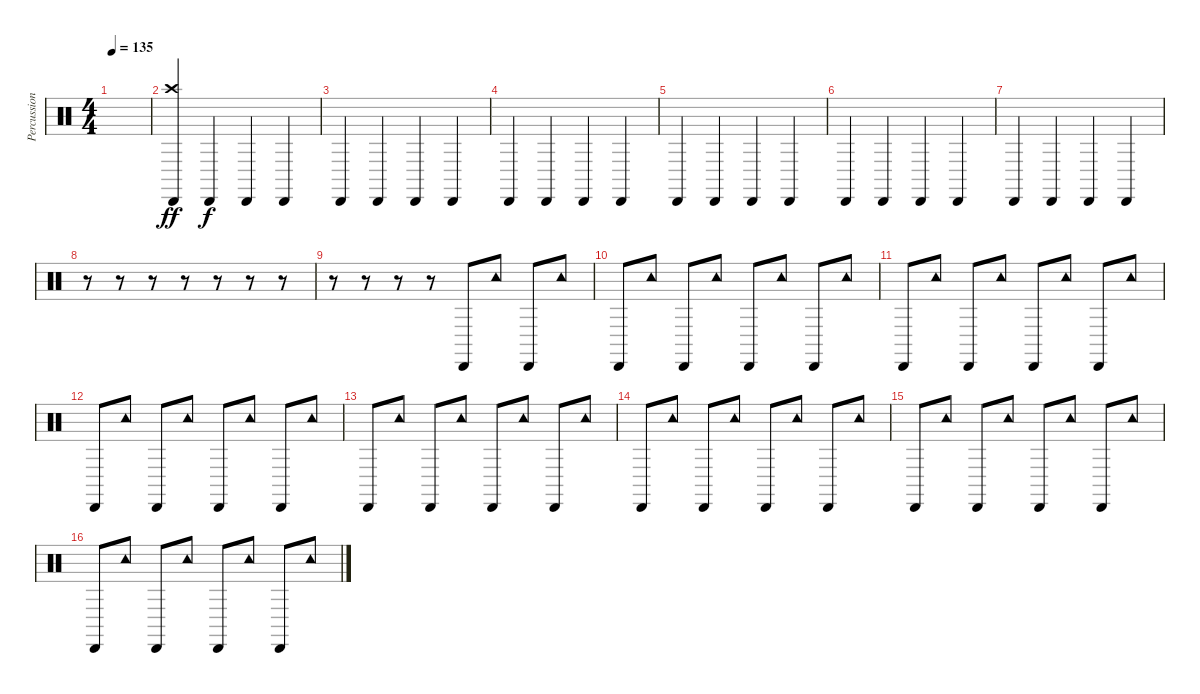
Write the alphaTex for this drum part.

\track ("Percussion2" "Percussion") {instrument percussion}
\staff {score}
\articulation defaults
\ts (4 4)
\tempo 135
\clef neutral
\ks c
|
("Crash high (hit)" "Cabasa (hit)").4{dy ff} "Cabasa (hit)".4{dy f} "Cabasa (hit)".4 "Cabasa (hit)".4 |
"Cabasa (hit)".4 "Cabasa (hit)".4 "Cabasa (hit)".4 "Cabasa (hit)".4 |
"Cabasa (hit)".4 "Cabasa (hit)".4 "Cabasa (hit)".4 "Cabasa (hit)".4 |
"Cabasa (hit)".4 "Cabasa (hit)".4 "Cabasa (hit)".4 "Cabasa (hit)".4 |
"Cabasa (hit)".4 "Cabasa (hit)".4 "Cabasa (hit)".4 "Cabasa (hit)".4 |
"Cabasa (hit)".4 "Cabasa (hit)".4 "Cabasa (hit)".4 "Cabasa (hit)".4 |
r.8 r.8 r.8 r.8 r.8 r.8 r.8 |
r.8 r.8 r.8 r.8 "Cabasa (hit)".8 "Tambourine (hit)".8 "Cabasa (hit)".8 "Tambourine (hit)".8 |
"Cabasa (hit)".8 "Tambourine (hit)".8 "Cabasa (hit)".8 "Tambourine (hit)".8 "Cabasa (hit)".8 "Tambourine (hit)".8 "Cabasa (hit)".8 "Tambourine (hit)".8 |
"Cabasa (hit)".8 "Tambourine (hit)".8 "Cabasa (hit)".8 "Tambourine (hit)".8 "Cabasa (hit)".8 "Tambourine (hit)".8 "Cabasa (hit)".8 "Tambourine (hit)".8 |
"Cabasa (hit)".8 "Tambourine (hit)".8 "Cabasa (hit)".8 "Tambourine (hit)".8 "Cabasa (hit)".8 "Tambourine (hit)".8 "Cabasa (hit)".8 "Tambourine (hit)".8 |
"Cabasa (hit)".8 "Tambourine (hit)".8 "Cabasa (hit)".8 "Tambourine (hit)".8 "Cabasa (hit)".8 "Tambourine (hit)".8 "Cabasa (hit)".8 "Tambourine (hit)".8 |
"Cabasa (hit)".8 "Tambourine (hit)".8 "Cabasa (hit)".8 "Tambourine (hit)".8 "Cabasa (hit)".8 "Tambourine (hit)".8 "Cabasa (hit)".8 "Tambourine (hit)".8 |
"Cabasa (hit)".8 "Tambourine (hit)".8 "Cabasa (hit)".8 "Tambourine (hit)".8 "Cabasa (hit)".8 "Tambourine (hit)".8 "Cabasa (hit)".8 "Tambourine (hit)".8 |
"Cabasa (hit)".8 "Tambourine (hit)".8 "Cabasa (hit)".8 "Tambourine (hit)".8 "Cabasa (hit)".8 "Tambourine (hit)".8 "Cabasa (hit)".8 "Tambourine (hit)".8
